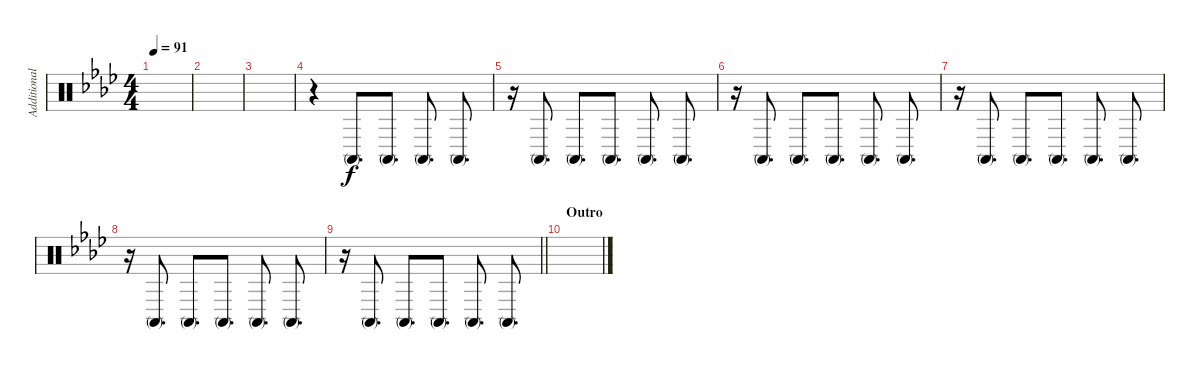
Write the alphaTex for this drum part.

\track ("Additional Percussion" "Additional") {instrument percussion}
\staff {score}
\articulation defaults
\ts (4 4)
\tempo 91
\clef neutral
\ks fminor
|
|
|
r.4{volume 7} "Conga high (mute)".8{d} "Conga high (mute)".8{d} "Conga high (mute)".8{d} "Conga high (mute)".8{d} |
r.16 "Conga high (mute)".8{d} "Conga high (mute)".8{d} "Conga high (mute)".8{d} "Conga high (mute)".8{d} "Conga high (mute)".8{d} |
r.16 "Conga high (mute)".8{d} "Conga high (mute)".8{d} "Conga high (mute)".8{d} "Conga high (mute)".8{d} "Conga high (mute)".8{d} |
r.16 "Conga high (mute)".8{d} "Conga high (mute)".8{d} "Conga high (mute)".8{d} "Conga high (mute)".8{d} "Conga high (mute)".8{d} |
r.16 "Conga high (mute)".8{d} "Conga high (mute)".8{d} "Conga high (mute)".8{d} "Conga high (mute)".8{d} "Conga high (mute)".8{d} |
\barLineRight lightlight
r.16 "Conga high (mute)".8{d} "Conga high (mute)".8{d} "Conga high (mute)".8{d} "Conga high (mute)".8{d} "Conga high (mute)".8{d} |
\section ("" "Outro")
